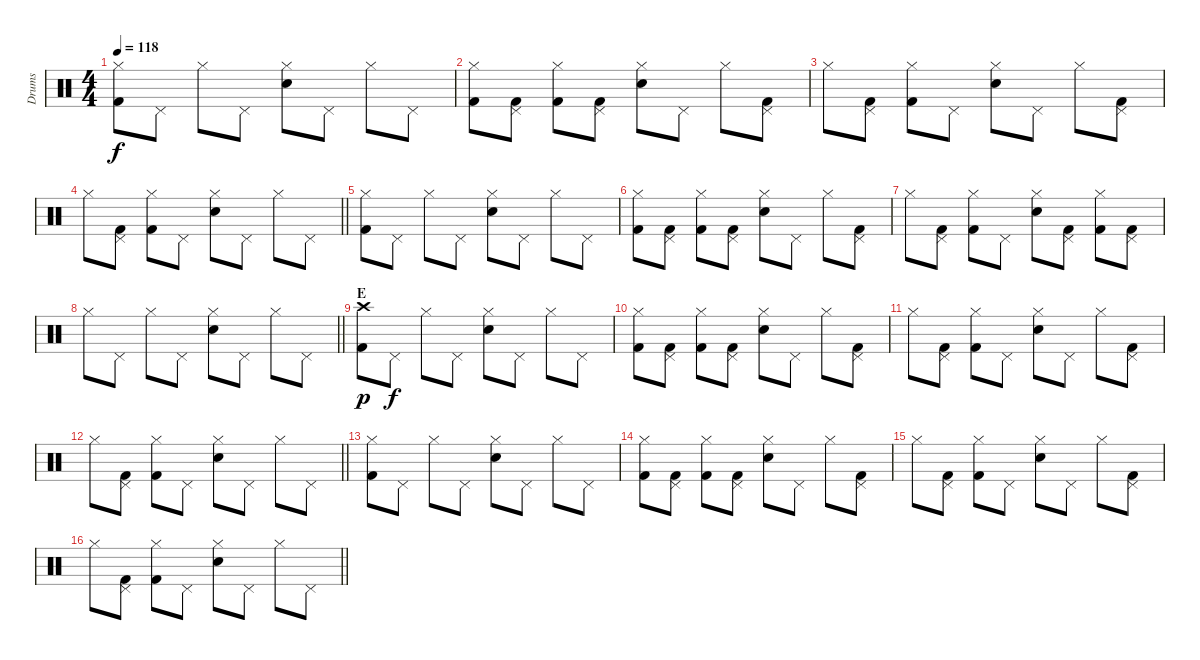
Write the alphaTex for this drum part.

\track ("Drums" "Drums") {instrument percussion}
\staff {score}
\articulation defaults
\ts (4 4)
\tempo 118
\clef neutral
\ks c
("Hi-Hat (closed)" "Kick (hit) 2").8{dy f} "Pedal Hi-Hat (hit)".8 "Hi-Hat (closed)".8 "Pedal Hi-Hat (hit)".8 ("Hi-Hat (closed)" "Electric Snare (hit)").8 "Pedal Hi-Hat (hit)".8 "Hi-Hat (closed)".8 "Pedal Hi-Hat (hit)".8 |
("Hi-Hat (closed)" "Kick (hit) 2").8 ("Pedal Hi-Hat (hit)" "Kick (hit) 2").8 ("Hi-Hat (closed)" "Kick (hit) 2").8 ("Pedal Hi-Hat (hit)" "Kick (hit) 2").8 ("Hi-Hat (closed)" "Electric Snare (hit)").8 "Pedal Hi-Hat (hit)".8 "Hi-Hat (closed)".8 ("Pedal Hi-Hat (hit)" "Kick (hit) 2").8 |
"Hi-Hat (closed)".8 ("Pedal Hi-Hat (hit)" "Kick (hit) 2").8 ("Hi-Hat (closed)" "Kick (hit) 2").8 "Pedal Hi-Hat (hit)".8 ("Hi-Hat (closed)" "Electric Snare (hit)").8 "Pedal Hi-Hat (hit)".8 "Hi-Hat (closed)".8 ("Pedal Hi-Hat (hit)" "Kick (hit) 2").8 |
\barLineRight lightlight "Hi-Hat (closed)".8
("Pedal Hi-Hat (hit)" "Kick (hit) 2").8 ("Hi-Hat (closed)" "Kick (hit) 2").8 "Pedal Hi-Hat (hit)".8 ("Hi-Hat (closed)" "Electric Snare (hit)").8 "Pedal Hi-Hat (hit)".8 "Hi-Hat (closed)".8 "Pedal Hi-Hat (hit)".8 |
("Hi-Hat (closed)" "Kick (hit) 2").8 "Pedal Hi-Hat (hit)".8 "Hi-Hat (closed)".8 "Pedal Hi-Hat (hit)".8 ("Hi-Hat (closed)" "Electric Snare (hit)").8 "Pedal Hi-Hat (hit)".8 "Hi-Hat (closed)".8 "Pedal Hi-Hat (hit)".8 |
("Hi-Hat (closed)" "Kick (hit) 2").8 ("Pedal Hi-Hat (hit)" "Kick (hit) 2").8 ("Hi-Hat (closed)" "Kick (hit) 2").8 ("Pedal Hi-Hat (hit)" "Kick (hit) 2").8 ("Hi-Hat (closed)" "Electric Snare (hit)").8 "Pedal Hi-Hat (hit)".8 "Hi-Hat (closed)".8 ("Pedal Hi-Hat (hit)" "Kick (hit) 2").8 |
"Hi-Hat (closed)".8 ("Pedal Hi-Hat (hit)" "Kick (hit) 2").8 ("Hi-Hat (closed)" "Kick (hit) 2").8 "Pedal Hi-Hat (hit)".8 ("Hi-Hat (closed)" "Electric Snare (hit)").8 ("Pedal Hi-Hat (hit)" "Kick (hit) 2").8 ("Hi-Hat (closed)" "Kick (hit) 2").8 ("Pedal Hi-Hat (hit)" "Kick (hit) 2").8 |
\barLineRight lightlight "Hi-Hat (closed)".8 "Pedal Hi-Hat (hit)".8 "Hi-Hat (closed)".8 "Pedal Hi-Hat (hit)".8
("Hi-Hat (closed)" "Electric Snare (hit)").8 "Pedal Hi-Hat (hit)".8 "Hi-Hat (closed)".8 "Pedal Hi-Hat (hit)".8 |
\section ("" "E")
("Crash high (hit)" "Kick (hit) 2").8{dy p} "Pedal Hi-Hat (hit)".8{dy f} "Hi-Hat (closed)".8 "Pedal Hi-Hat (hit)".8 ("Hi-Hat (closed)" "Electric Snare (hit)").8 "Pedal Hi-Hat (hit)".8 "Hi-Hat (closed)".8 "Pedal Hi-Hat (hit)".8 |
("Hi-Hat (closed)" "Kick (hit) 2").8 ("Pedal Hi-Hat (hit)" "Kick (hit) 2").8 ("Hi-Hat (closed)" "Kick (hit) 2").8 ("Pedal Hi-Hat (hit)" "Kick (hit) 2").8 ("Hi-Hat (closed)" "Electric Snare (hit)").8 "Pedal Hi-Hat (hit)".8 "Hi-Hat (closed)".8 ("Pedal Hi-Hat (hit)" "Kick (hit) 2").8 |
"Hi-Hat (closed)".8 ("Pedal Hi-Hat (hit)" "Kick (hit) 2").8 ("Hi-Hat (closed)" "Kick (hit) 2").8 "Pedal Hi-Hat (hit)".8 ("Hi-Hat (closed)" "Electric Snare (hit)").8 "Pedal Hi-Hat (hit)".8 "Hi-Hat (closed)".8 ("Pedal Hi-Hat (hit)" "Kick (hit) 2").8 |
\barLineRight lightlight "Hi-Hat (closed)".8
("Pedal Hi-Hat (hit)" "Kick (hit) 2").8 ("Hi-Hat (closed)" "Kick (hit) 2").8 "Pedal Hi-Hat (hit)".8 ("Hi-Hat (closed)" "Electric Snare (hit)").8 "Pedal Hi-Hat (hit)".8 "Hi-Hat (closed)".8 "Pedal Hi-Hat (hit)".8 |
("Hi-Hat (closed)" "Kick (hit) 2").8 "Pedal Hi-Hat (hit)".8 "Hi-Hat (closed)".8 "Pedal Hi-Hat (hit)".8 ("Hi-Hat (closed)" "Electric Snare (hit)").8 "Pedal Hi-Hat (hit)".8 "Hi-Hat (closed)".8 "Pedal Hi-Hat (hit)".8 |
("Hi-Hat (closed)" "Kick (hit) 2").8 ("Pedal Hi-Hat (hit)" "Kick (hit) 2").8 ("Hi-Hat (closed)" "Kick (hit) 2").8 ("Pedal Hi-Hat (hit)" "Kick (hit) 2").8 ("Hi-Hat (closed)" "Electric Snare (hit)").8 "Pedal Hi-Hat (hit)".8 "Hi-Hat (closed)".8 ("Pedal Hi-Hat (hit)" "Kick (hit) 2").8 |
"Hi-Hat (closed)".8 ("Pedal Hi-Hat (hit)" "Kick (hit) 2").8 ("Hi-Hat (closed)" "Kick (hit) 2").8 "Pedal Hi-Hat (hit)".8 ("Hi-Hat (closed)" "Electric Snare (hit)").8 "Pedal Hi-Hat (hit)".8 "Hi-Hat (closed)".8 ("Pedal Hi-Hat (hit)" "Kick (hit) 2").8 |
\barLineRight lightlight "Hi-Hat (closed)".8
("Pedal Hi-Hat (hit)" "Kick (hit) 2").8 ("Hi-Hat (closed)" "Kick (hit) 2").8 "Pedal Hi-Hat (hit)".8 ("Hi-Hat (closed)" "Electric Snare (hit)").8 "Pedal Hi-Hat (hit)".8 "Hi-Hat (closed)".8 "Pedal Hi-Hat (hit)".8
